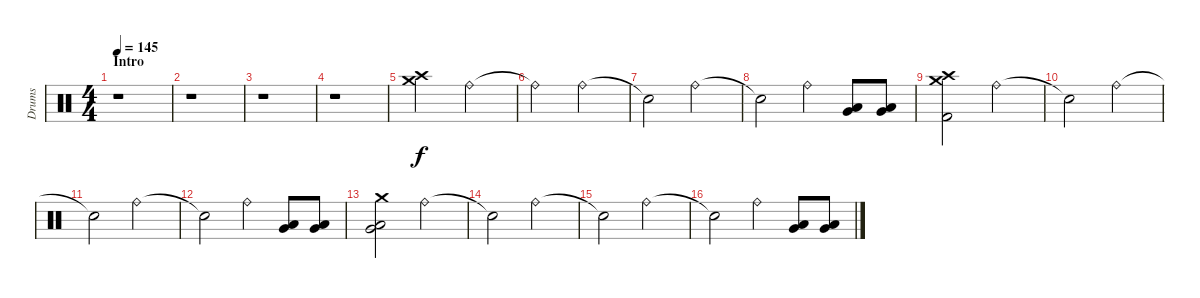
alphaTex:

\track ("Drums" "Drums") {instrument percussion}
\staff {score}
\articulation defaults
\ts (4 4)
\section ("" "Intro")
\tempo 145
\clef neutral
\ks c
r.1{dy f} |
r.1 |
r.1 |
r.1 |
("Crash high (hit)" "Crash medium (hit)").2 "Ride (bell)".2 |
"Ride (bell)"{t}.2 "Ride (bell)".2 |
"Snare (hit)"{t}.2 "Ride (bell)".2 |
"Snare (hit)"{t}.2 "Ride (bell)".4 ("Very Low Tom (hit)" "Low Tom (hit)").8 ("Very Low Tom (hit)" "Low Tom (hit)").8 |
("Crash medium (hit)" "Crash high (hit)" "Kick (hit) 2").2 "Ride (bell)".2 |
"Snare (hit)"{t}.2 "Ride (bell)".2 |
"Snare (hit)"{t}.2 "Ride (bell)".2 |
"Snare (hit)"{t}.2 "Ride (bell)".4 ("Very Low Tom (hit)" "Low Tom (hit)").8 ("Very Low Tom (hit)" "Low Tom (hit)").8 |
("Crash medium (hit)" "Very Low Tom (hit)" "Low Tom (hit)").2 "Ride (bell)".2 |
"Snare (hit)"{t}.2 "Ride (bell)".2 |
"Snare (hit)"{t}.2 "Ride (bell)".2 |
"Snare (hit)"{t}.2 "Ride (bell)".4 ("Very Low Tom (hit)" "Low Tom (hit)").8 ("Very Low Tom (hit)" "Low Tom (hit)").8
